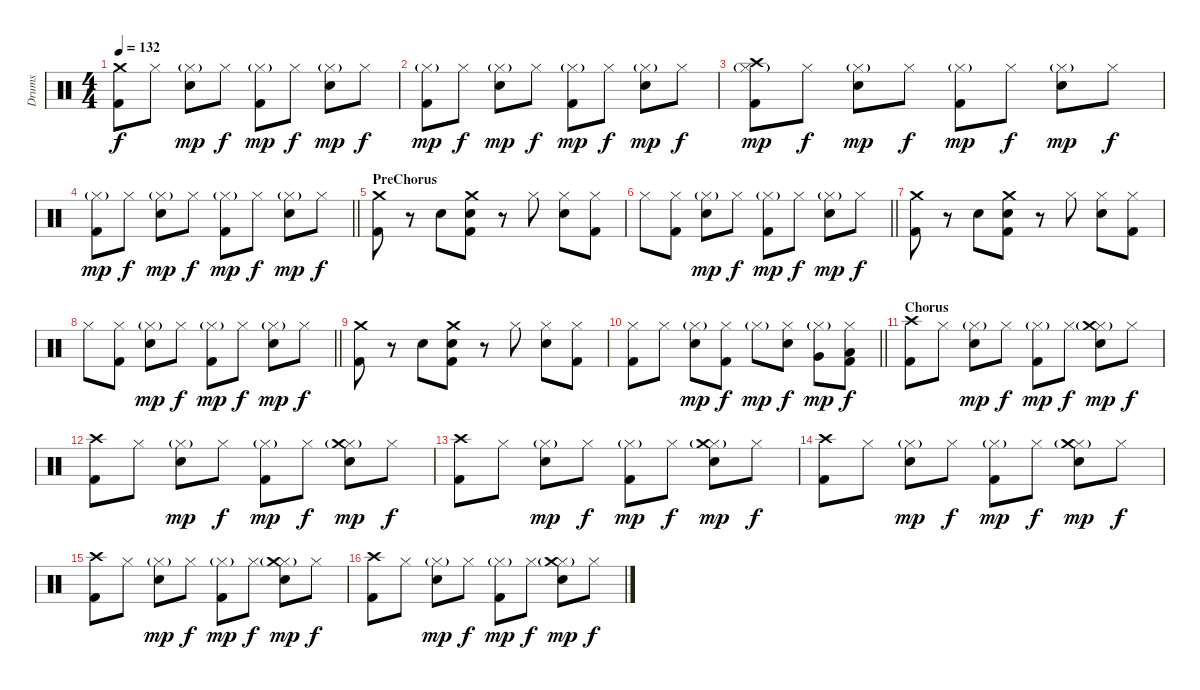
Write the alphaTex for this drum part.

\track ("Drums" "Drums") {instrument percussion}
\staff {score}
\articulation defaults
\ts (4 4)
\tempo 132
\clef neutral
\ks c
("Crash medium (hit)" "Kick (hit) 2").8{dy f} "Hi-Hat (closed)".8 ("Hi-Hat (closed)"{g} "Snare (hit) 2").8{dy mp} "Hi-Hat (closed)".8{dy f} ("Hi-Hat (closed)"{g} "Kick (hit) 2").8{dy mp} "Hi-Hat (closed)".8{dy f} ("Hi-Hat (closed)"{g} "Snare (hit) 2").8{dy mp} "Hi-Hat (closed)".8{dy f} |
("Hi-Hat (closed)"{g} "Kick (hit) 2").8{dy mp} "Hi-Hat (closed)".8{dy f} ("Hi-Hat (closed)"{g} "Snare (hit) 2").8{dy mp} "Hi-Hat (closed)".8{dy f} ("Hi-Hat (closed)"{g} "Kick (hit) 2").8{dy mp} "Hi-Hat (closed)".8{dy f} ("Hi-Hat (closed)"{g} "Snare (hit) 2").8{dy mp} "Hi-Hat (closed)".8{dy f} |
("Hi-Hat (closed)"{g} "Crash high (hit)" "Kick (hit) 2").8{dy mp} "Hi-Hat (closed)".8{dy f} ("Hi-Hat (closed)"{g} "Snare (hit) 2").8{dy mp} "Hi-Hat (closed)".8{dy f} ("Hi-Hat (closed)"{g} "Kick (hit) 2").8{dy mp} "Hi-Hat (closed)".8{dy f} ("Hi-Hat (closed)"{g} "Snare (hit) 2").8{dy mp} "Hi-Hat (closed)".8{dy f} |
\barLineRight lightlight
("Hi-Hat (closed)"{g} "Kick (hit) 2").8{dy mp} "Hi-Hat (closed)".8{dy f} ("Hi-Hat (closed)"{g} "Snare (hit) 2").8{dy mp} "Hi-Hat (closed)".8{dy f} ("Hi-Hat (closed)"{g} "Kick (hit) 2").8{dy mp} "Hi-Hat (closed)".8{dy f} ("Hi-Hat (closed)"{g} "Snare (hit) 2").8{dy mp} "Hi-Hat (closed)".8{dy f} |
\section ("" "PreChorus")
("Crash medium (hit)" "Kick (hit) 2").8 r.8 "Snare (hit) 2".8 ("Crash medium (hit)" "Snare (hit) 2" "Kick (hit) 2").8 r.8 "Hi-Hat (closed)".8 ("Hi-Hat (closed)" "Snare (hit) 2").8 ("Hi-Hat (closed)" "Kick (hit) 2").8 |
\barLineRight lightlight "Hi-Hat (closed)".8
("Hi-Hat (closed)" "Kick (hit) 2").8 ("Hi-Hat (closed)"{g} "Snare (hit) 2").8{dy mp} "Hi-Hat (closed)".8{dy f} ("Hi-Hat (closed)"{g} "Kick (hit) 2").8{dy mp} "Hi-Hat (closed)".8{dy f} ("Hi-Hat (closed)"{g} "Snare (hit) 2").8{dy mp} "Hi-Hat (closed)".8{dy f} |
("Crash medium (hit)" "Kick (hit) 2").8 r.8 "Snare (hit) 2".8 ("Crash medium (hit)" "Snare (hit) 2" "Kick (hit) 2").8 r.8 "Hi-Hat (closed)".8 ("Hi-Hat (closed)" "Snare (hit) 2").8 ("Hi-Hat (closed)" "Kick (hit) 2").8 |
\barLineRight lightlight "Hi-Hat (closed)".8
("Hi-Hat (closed)" "Kick (hit) 2").8 ("Hi-Hat (closed)"{g} "Snare (hit) 2").8{dy mp} "Hi-Hat (closed)".8{dy f} ("Hi-Hat (closed)"{g} "Kick (hit) 2").8{dy mp} "Hi-Hat (closed)".8{dy f} ("Hi-Hat (closed)"{g} "Snare (hit) 2").8{dy mp} "Hi-Hat (closed)".8{dy f} |
("Crash medium (hit)" "Kick (hit) 2").8 r.8 "Snare (hit) 2".8 ("Crash medium (hit)" "Snare (hit) 2" "Kick (hit) 2").8 r.8 "Hi-Hat (closed)".8 ("Hi-Hat (closed)" "Snare (hit) 2").8 ("Hi-Hat (closed)" "Kick (hit) 2").8 |
\barLineRight lightlight
("Hi-Hat (closed)" "Kick (hit) 2").8 "Hi-Hat (closed)".8 ("Hi-Hat (closed)"{g} "Snare (hit) 2").8{dy mp} ("Hi-Hat (closed)" "Kick (hit) 2").8{dy f} "Hi-Hat (closed)"{g}.8{dy mp} ("Hi-Hat (closed)" "Snare (hit) 2").8{dy f} ("Hi-Hat (closed)"{g} "Very Low Tom (hit)").8{dy mp} ("Hi-Hat (closed)" "Low Tom (hit)" "Kick (hit) 2").8{dy f} |
\section ("" "Chorus")
("Crash high (hit)" "Kick (hit) 2").8 "Hi-Hat (closed)".8 ("Hi-Hat (closed)"{g} "Snare (hit) 2").8{dy mp} "Hi-Hat (closed)".8{dy f} ("Hi-Hat (closed)"{g} "Kick (hit) 2").8{dy mp} "Hi-Hat (closed)".8{dy f} ("Hi-Hat (closed)"{g} "Crash medium (hit)" "Snare (hit) 2").8{dy mp} "Hi-Hat (closed)".8{dy f} |
("Crash high (hit)" "Kick (hit) 2").8 "Hi-Hat (closed)".8 ("Hi-Hat (closed)"{g} "Snare (hit) 2").8{dy mp} "Hi-Hat (closed)".8{dy f} ("Hi-Hat (closed)"{g} "Kick (hit) 2").8{dy mp} "Hi-Hat (closed)".8{dy f} ("Hi-Hat (closed)"{g} "Crash medium (hit)" "Snare (hit) 2").8{dy mp} "Hi-Hat (closed)".8{dy f} |
("Crash high (hit)" "Kick (hit) 2").8 "Hi-Hat (closed)".8 ("Hi-Hat (closed)"{g} "Snare (hit) 2").8{dy mp} "Hi-Hat (closed)".8{dy f} ("Hi-Hat (closed)"{g} "Kick (hit) 2").8{dy mp} "Hi-Hat (closed)".8{dy f} ("Hi-Hat (closed)"{g} "Crash medium (hit)" "Snare (hit) 2").8{dy mp} "Hi-Hat (closed)".8{dy f} |
("Crash high (hit)" "Kick (hit) 2").8 "Hi-Hat (closed)".8 ("Hi-Hat (closed)"{g} "Snare (hit) 2").8{dy mp} "Hi-Hat (closed)".8{dy f} ("Hi-Hat (closed)"{g} "Kick (hit) 2").8{dy mp} "Hi-Hat (closed)".8{dy f} ("Hi-Hat (closed)"{g} "Crash medium (hit)" "Snare (hit) 2").8{dy mp} "Hi-Hat (closed)".8{dy f} |
("Crash high (hit)" "Kick (hit) 2").8 "Hi-Hat (closed)".8 ("Hi-Hat (closed)"{g} "Snare (hit) 2").8{dy mp} "Hi-Hat (closed)".8{dy f} ("Hi-Hat (closed)"{g} "Kick (hit) 2").8{dy mp} "Hi-Hat (closed)".8{dy f} ("Hi-Hat (closed)"{g} "Crash medium (hit)" "Snare (hit) 2").8{dy mp} "Hi-Hat (closed)".8{dy f} |
("Crash high (hit)" "Kick (hit) 2").8 "Hi-Hat (closed)".8 ("Hi-Hat (closed)"{g} "Snare (hit) 2").8{dy mp} "Hi-Hat (closed)".8{dy f} ("Hi-Hat (closed)"{g} "Kick (hit) 2").8{dy mp} "Hi-Hat (closed)".8{dy f} ("Hi-Hat (closed)"{g} "Crash medium (hit)" "Snare (hit) 2").8{dy mp} "Hi-Hat (closed)".8{dy f}
